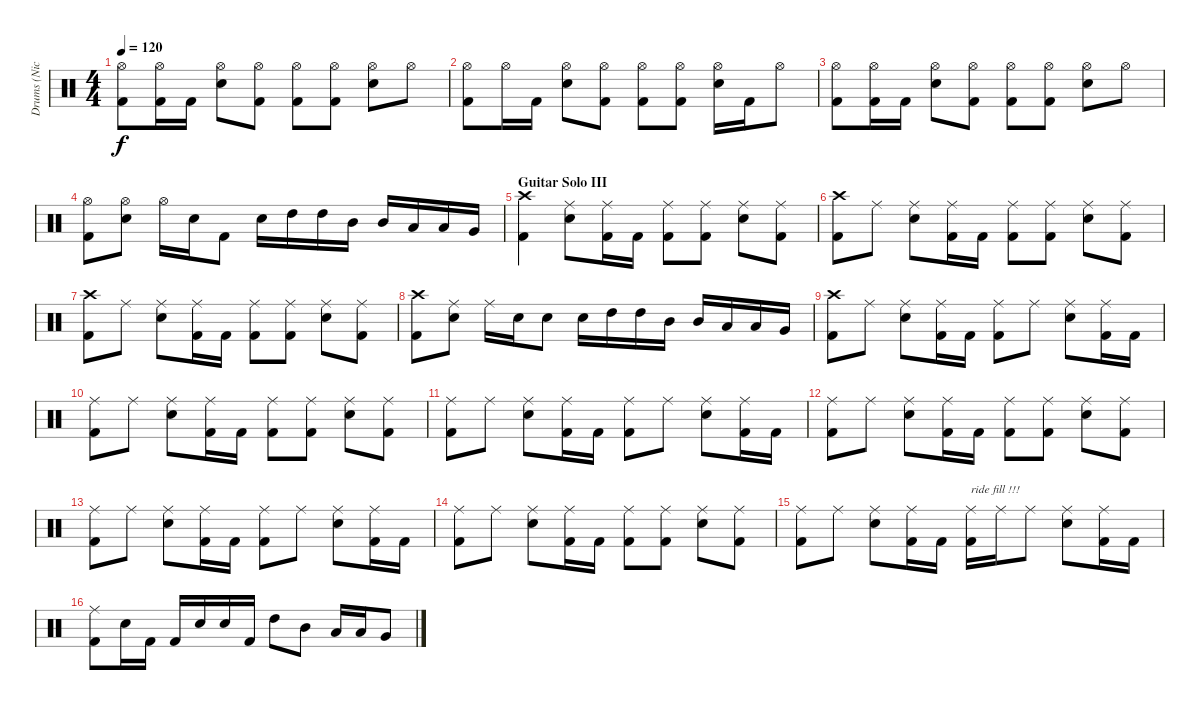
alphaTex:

\track ("Drums (Nick Menza)" "Drums (Nic") {instrument percussion}
\staff {score}
\articulation defaults
\ts (4 4)
\tempo 120
\clef neutral
\ks c
("Hi-Hat (open)" "Kick (hit) 2").8{dy f} ("Hi-Hat (open)" "Kick (hit) 2").16 "Kick (hit) 2".16 ("Hi-Hat (open)" "Snare (hit) 2").8 ("Hi-Hat (open)" "Kick (hit) 2").8 ("Hi-Hat (open)" "Kick (hit) 2").8 ("Hi-Hat (open)" "Kick (hit) 2").8 ("Hi-Hat (open)" "Snare (hit) 2").8 "Hi-Hat (open)".8 |
("Hi-Hat (open)" "Kick (hit) 2").8 "Hi-Hat (open)".16 "Kick (hit) 2".16 ("Hi-Hat (open)" "Snare (hit) 2").8 ("Hi-Hat (open)" "Kick (hit) 2").8 ("Hi-Hat (open)" "Kick (hit) 2").8 ("Hi-Hat (open)" "Kick (hit) 2").8 ("Hi-Hat (open)" "Snare (hit) 2").16 "Kick (hit) 2".16 "Hi-Hat (open)".8 |
("Hi-Hat (open)" "Kick (hit) 2").8 ("Hi-Hat (open)" "Kick (hit) 2").16 "Kick (hit) 2".16 ("Hi-Hat (open)" "Snare (hit) 2").8 ("Hi-Hat (open)" "Kick (hit) 2").8 ("Hi-Hat (open)" "Kick (hit) 2").8 ("Hi-Hat (open)" "Kick (hit) 2").8 ("Hi-Hat (open)" "Snare (hit) 2").8 "Hi-Hat (open)".8 |
("Hi-Hat (open)" "Kick (hit) 2").8 ("Hi-Hat (open)" "Snare (hit) 2").8 "Hi-Hat (open)".16 "Snare (hit) 2".16 "Kick (hit) 2".8 "Snare (hit) 2".16 "High Tom (hit)".16 "High Tom (hit)".16 "Mid Tom (hit)".16 "Mid Tom (hit)".16 "Low Tom (hit)".16 "Low Tom (hit)".16 "Very Low Tom (hit)".16 |
\section ("" "Guitar Solo III")
("Crash high (hit)" "Kick (hit) 2").4 ("Ride (middle)" "Snare (hit) 2").8 ("Ride (middle)" "Kick (hit) 2").16 "Kick (hit) 2".16 ("Ride (middle)" "Kick (hit) 2").8 ("Ride (middle)" "Kick (hit) 2").8 ("Ride (middle)" "Snare (hit) 2").8 ("Ride (middle)" "Kick (hit) 2").8 |
("Crash high (hit)" "Kick (hit) 2").8 "Ride (middle)".8 ("Ride (middle)" "Snare (hit) 2").8 ("Ride (middle)" "Kick (hit) 2").16 "Kick (hit) 2".16 ("Ride (middle)" "Kick (hit) 2").8 ("Ride (middle)" "Kick (hit) 2").8 ("Ride (middle)" "Snare (hit) 2").8 ("Ride (middle)" "Kick (hit) 2").8 |
("Crash high (hit)" "Kick (hit) 2").8 "Ride (middle)".8 ("Ride (middle)" "Snare (hit) 2").8 ("Ride (middle)" "Kick (hit) 2").16 "Kick (hit) 2".16 ("Ride (middle)" "Kick (hit) 2").8 ("Ride (middle)" "Kick (hit) 2").8 ("Ride (middle)" "Snare (hit) 2").8 ("Ride (middle)" "Kick (hit) 2").8 |
("Crash high (hit)" "Kick (hit) 2").8 ("Ride (middle)" "Snare (hit) 2").8 "Ride (middle)".16 "Snare (hit) 2".16 "Snare (hit) 2".8 "Snare (hit) 2".16 "High Tom (hit)".16 "High Tom (hit)".16 "Mid Tom (hit)".16 "Mid Tom (hit)".16 "Low Tom (hit)".16 "Low Tom (hit)".16 "Very Low Tom (hit)".16 |
("Crash high (hit)" "Kick (hit) 2").8 "Ride (middle)".8 ("Ride (middle)" "Snare (hit) 2").8 ("Ride (middle)" "Kick (hit) 2").16 "Kick (hit) 2".16 ("Ride (middle)" "Kick (hit) 2").8 "Ride (middle)".8 ("Ride (middle)" "Snare (hit) 2").8 ("Ride (middle)" "Kick (hit) 2").16 "Kick (hit) 2".16 |
("Ride (middle)" "Kick (hit) 2").8 "Ride (middle)".8 ("Ride (middle)" "Snare (hit) 2").8 ("Ride (middle)" "Kick (hit) 2").16 "Kick (hit) 2".16 ("Ride (middle)" "Kick (hit) 2").8 ("Ride (middle)" "Kick (hit) 2").8 ("Ride (middle)" "Snare (hit) 2").8 ("Ride (middle)" "Kick (hit) 2").8 |
("Ride (middle)" "Kick (hit) 2").8 "Ride (middle)".8 ("Ride (middle)" "Snare (hit) 2").8 ("Ride (middle)" "Kick (hit) 2").16 "Kick (hit) 2".16 ("Ride (middle)" "Kick (hit) 2").8 "Ride (middle)".8 ("Ride (middle)" "Snare (hit) 2").8 ("Ride (middle)" "Kick (hit) 2").16 "Kick (hit) 2".16 |
("Ride (middle)" "Kick (hit) 2").8 "Ride (middle)".8 ("Ride (middle)" "Snare (hit) 2").8 ("Ride (middle)" "Kick (hit) 2").16 "Kick (hit) 2".16 ("Ride (middle)" "Kick (hit) 2").8 ("Ride (middle)" "Kick (hit) 2").8 ("Ride (middle)" "Snare (hit) 2").8 ("Ride (middle)" "Kick (hit) 2").8 |
("Ride (middle)" "Kick (hit) 2").8 "Ride (middle)".8 ("Ride (middle)" "Snare (hit) 2").8 ("Ride (middle)" "Kick (hit) 2").16 "Kick (hit) 2".16 ("Ride (middle)" "Kick (hit) 2").8 "Ride (middle)".8 ("Ride (middle)" "Snare (hit) 2").8 ("Ride (middle)" "Kick (hit) 2").16 "Kick (hit) 2".16 |
("Ride (middle)" "Kick (hit) 2").8 "Ride (middle)".8 ("Ride (middle)" "Snare (hit) 2").8 ("Ride (middle)" "Kick (hit) 2").16 "Kick (hit) 2".16 ("Ride (middle)" "Kick (hit) 2").8 ("Ride (middle)" "Kick (hit) 2").8 ("Ride (middle)" "Snare (hit) 2").8 ("Ride (middle)" "Kick (hit) 2").8 |
("Ride (middle)" "Kick (hit) 2").8 "Ride (middle)".8 ("Ride (middle)" "Snare (hit) 2").8 ("Ride (middle)" "Kick (hit) 2").16 "Kick (hit) 2".16 ("Ride (middle)" "Kick (hit) 2").16{txt "ride fill !!!"} "Ride (middle)".16 "Ride (middle)".8 ("Ride (middle)" "Snare (hit) 2").8 ("Ride (middle)" "Kick (hit) 2").16 "Kick (hit) 2".16 |
("Ride (middle)" "Kick (hit) 2").8 "Snare (hit) 2".16 "Kick (hit) 2".16 "Kick (hit) 2".16 "Snare (hit) 2".16 "Snare (hit) 2".16 "Kick (hit) 2".16 "High Tom (hit)".8 "Mid Tom (hit)".8 "Low Tom (hit)".16 "Low Tom (hit)".16 "Very Low Tom (hit)".8
